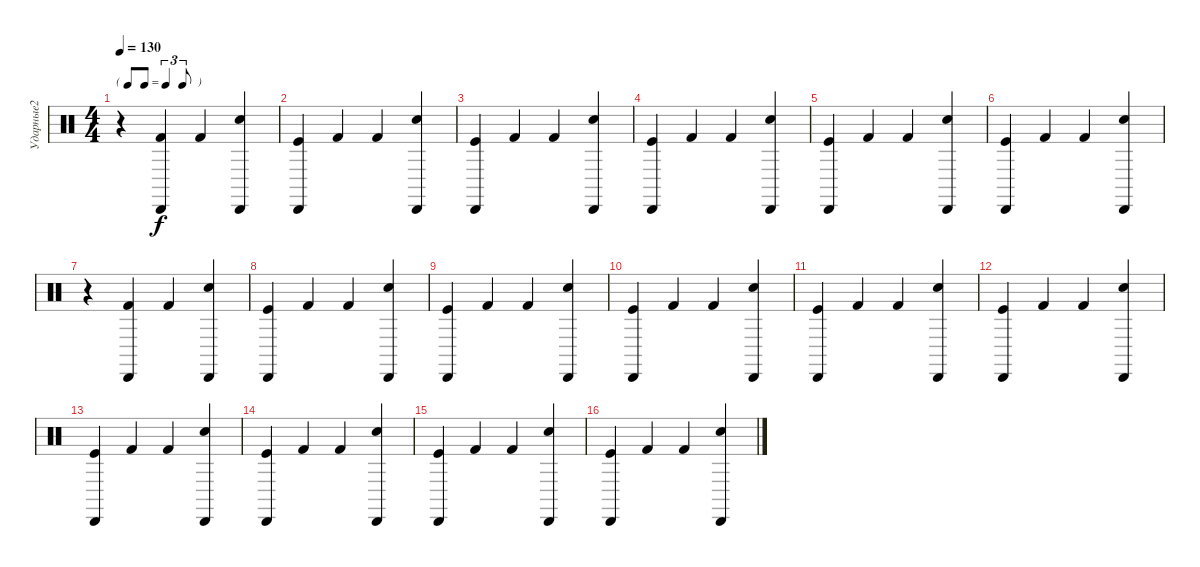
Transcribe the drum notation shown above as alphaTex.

\track ("Ударные2" "Ударные2") {instrument percussion}
\staff {score}
\articulation defaults
\ts (4 4)
\tf triplet8th
\tempo 130
\clef neutral
\ks c
r.4{dy f} ("Cabasa (hit)" "Kick (hit) 2").4 "Kick (hit) 2".4 ("Cabasa (hit)" "Snare (hit) 2").4 |
("Cabasa (hit)" "Kick (hit)").4 "Kick (hit) 2".4 "Kick (hit) 2".4 ("Cabasa (hit)" "Snare (hit) 2").4 |
("Cabasa (hit)" "Kick (hit)").4 "Kick (hit) 2".4 "Kick (hit) 2".4 ("Cabasa (hit)" "Snare (hit) 2").4 |
("Cabasa (hit)" "Kick (hit)").4 "Kick (hit) 2".4 "Kick (hit) 2".4 ("Cabasa (hit)" "Snare (hit) 2").4 |
("Cabasa (hit)" "Kick (hit)").4 "Kick (hit) 2".4 "Kick (hit) 2".4 ("Cabasa (hit)" "Snare (hit) 2").4 |
("Cabasa (hit)" "Kick (hit)").4 "Kick (hit) 2".4 "Kick (hit) 2".4 ("Cabasa (hit)" "Snare (hit) 2").4 |
r.4 ("Cabasa (hit)" "Kick (hit) 2").4 "Kick (hit) 2".4 ("Cabasa (hit)" "Snare (hit) 2").4 |
("Cabasa (hit)" "Kick (hit)").4 "Kick (hit) 2".4 "Kick (hit) 2".4 ("Cabasa (hit)" "Snare (hit) 2").4 |
("Cabasa (hit)" "Kick (hit)").4 "Kick (hit) 2".4 "Kick (hit) 2".4 ("Cabasa (hit)" "Snare (hit) 2").4 |
("Cabasa (hit)" "Kick (hit)").4 "Kick (hit) 2".4 "Kick (hit) 2".4 ("Cabasa (hit)" "Snare (hit) 2").4 |
("Cabasa (hit)" "Kick (hit)").4 "Kick (hit) 2".4 "Kick (hit) 2".4 ("Cabasa (hit)" "Snare (hit) 2").4 |
("Cabasa (hit)" "Kick (hit)").4 "Kick (hit) 2".4 "Kick (hit) 2".4 ("Cabasa (hit)" "Snare (hit) 2").4 |
("Cabasa (hit)" "Kick (hit)").4 "Kick (hit) 2".4 "Kick (hit) 2".4 ("Cabasa (hit)" "Snare (hit) 2").4 |
("Cabasa (hit)" "Kick (hit)").4 "Kick (hit) 2".4 "Kick (hit) 2".4 ("Cabasa (hit)" "Snare (hit) 2").4 |
("Cabasa (hit)" "Kick (hit)").4 "Kick (hit) 2".4 "Kick (hit) 2".4 ("Cabasa (hit)" "Snare (hit) 2").4 |
("Cabasa (hit)" "Kick (hit)").4 "Kick (hit) 2".4 "Kick (hit) 2".4 ("Cabasa (hit)" "Snare (hit) 2").4
